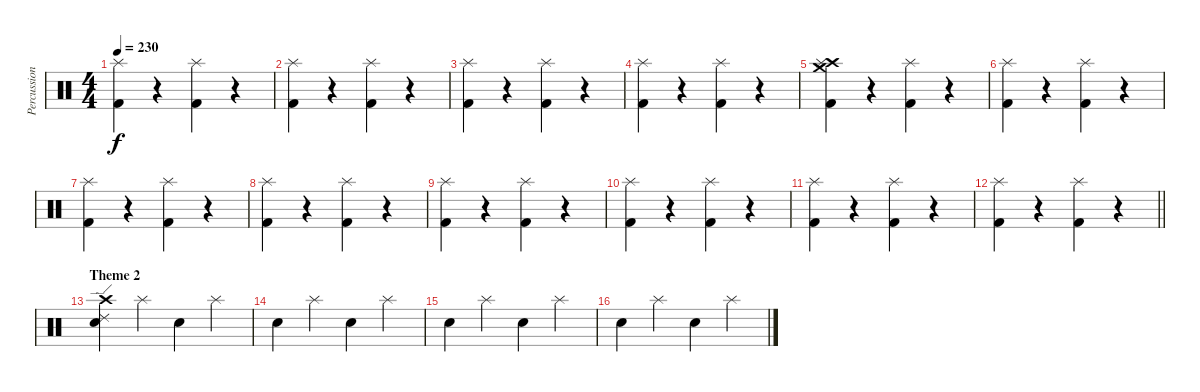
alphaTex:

\track ("Percussion" "Percussion") {instrument percussion}
\staff {score}
\articulation defaults
\ts (4 4)
\tempo 230
\clef neutral
\ks c
("Kick (hit) 2" "Splash (hit)").4{dy f} r.4 ("Kick (hit) 2" "Splash (hit)").4 r.4 |
("Kick (hit) 2" "Splash (hit)").4 r.4 ("Kick (hit) 2" "Splash (hit)").4 r.4 |
("Kick (hit) 2" "Splash (hit)").4 r.4 ("Kick (hit) 2" "Splash (hit)").4 r.4 |
("Kick (hit) 2" "Splash (hit)").4 r.4 ("Kick (hit) 2" "Splash (hit)").4 r.4 |
("Crash medium (hit)" "Crash high (hit)" "Kick (hit) 2" "Splash (hit)").4 r.4 ("Kick (hit) 2" "Splash (hit)").4 r.4 |
("Kick (hit) 2" "Splash (hit)").4 r.4 ("Kick (hit) 2" "Splash (hit)").4 r.4 |
("Kick (hit) 2" "Splash (hit)").4 r.4 ("Kick (hit) 2" "Splash (hit)").4 r.4 |
("Kick (hit) 2" "Splash (hit)").4 r.4 ("Kick (hit) 2" "Splash (hit)").4 r.4 |
("Kick (hit) 2" "Splash (hit)").4 r.4 ("Kick (hit) 2" "Splash (hit)").4 r.4 |
("Kick (hit) 2" "Splash (hit)").4 r.4 ("Kick (hit) 2" "Splash (hit)").4 r.4 |
("Kick (hit) 2" "Splash (hit)").4 r.4 ("Kick (hit) 2" "Splash (hit)").4 r.4 |
\barLineRight lightlight
("Kick (hit) 2" "Splash (hit)").4 r.4 ("Kick (hit) 2" "Splash (hit)").4 r.4 |
\section ("" "Theme 2")
("Crash high (hit)" "Ride (edge) 2" "Snare (hit) 2").4 "Splash (hit)".4 "Snare (hit) 2".4 "Splash (hit)".4 |
"Snare (hit) 2".4 "Splash (hit)".4 "Snare (hit) 2".4 "Splash (hit)".4 |
"Snare (hit) 2".4 "Splash (hit)".4 "Snare (hit) 2".4 "Splash (hit)".4 |
"Snare (hit) 2".4 "Splash (hit)".4 "Snare (hit) 2".4 "Splash (hit)".4
